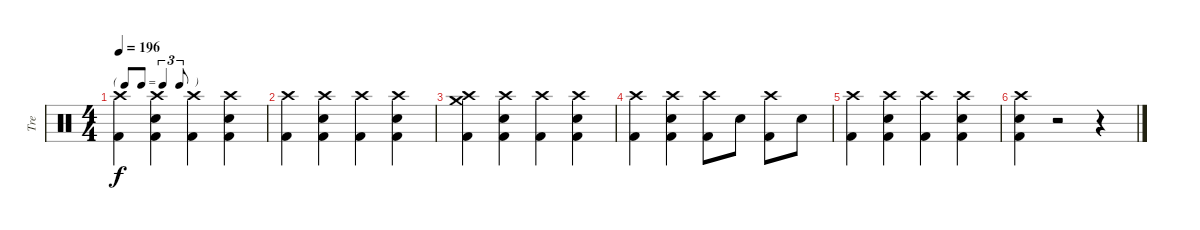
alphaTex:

\track ("Tre" "Tre") {instrument percussion}
\staff {score}
\articulation defaults
\ts (4 4)
\tf triplet8th
\tempo 196
\clef neutral
\ks c
("Crash high (hit)" "Kick (hit) 2").4{dy f} ("Crash high (hit)" "Snare (hit) 2" "Kick (hit) 2").4 ("Crash high (hit)" "Kick (hit) 2").4 ("Crash high (hit)" "Snare (hit) 2" "Kick (hit) 2").4 |
("Crash high (hit)" "Kick (hit) 2").4 ("Crash high (hit)" "Snare (hit) 2" "Kick (hit) 2").4 ("Crash high (hit)" "Kick (hit) 2").4 ("Crash high (hit)" "Snare (hit) 2" "Kick (hit) 2").4 |
("Crash high (hit)" "Crash medium (hit)" "Kick (hit) 2").4 ("Crash high (hit)" "Snare (hit) 2" "Kick (hit) 2").4 ("Crash high (hit)" "Kick (hit) 2").4 ("Crash high (hit)" "Snare (hit) 2" "Kick (hit) 2").4 |
("Crash high (hit)" "Kick (hit) 2").4 ("Crash high (hit)" "Snare (hit) 2" "Kick (hit) 2").4 ("Crash high (hit)" "Kick (hit) 2").8 "Snare (hit) 2".8 ("Crash high (hit)" "Kick (hit) 2").8 "Snare (hit) 2".8 |
("Crash high (hit)" "Kick (hit) 2").4 ("Crash high (hit)" "Snare (hit) 2" "Kick (hit) 2").4 ("Crash high (hit)" "Kick (hit) 2").4 ("Crash high (hit)" "Snare (hit) 2" "Kick (hit) 2").4 |
("Crash high (hit)" "Snare (hit) 2" "Kick (hit) 2").4 r.2 r.4
